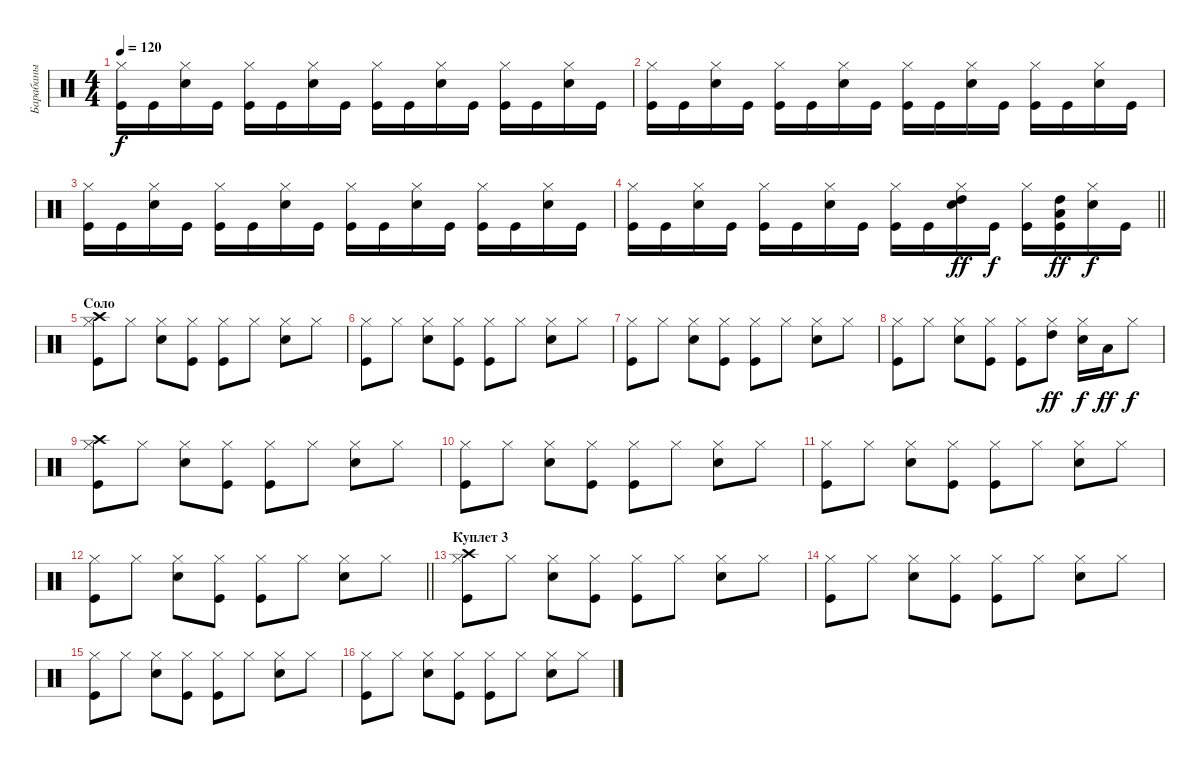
\track ("Барабаны" "Барабаны") {instrument percussion}
\staff {score}
\articulation defaults
\ts (4 4)
\tempo 120
\clef neutral
\ks c
("Kick (hit)" "Hi-Hat (closed)").16{dy f} "Kick (hit)".16 ("Snare (hit) 2" "Hi-Hat (closed)").16 "Kick (hit)".16 ("Kick (hit)" "Hi-Hat (closed)").16 "Kick (hit)".16 ("Snare (hit) 2" "Hi-Hat (closed)").16 "Kick (hit)".16 ("Kick (hit)" "Hi-Hat (closed)").16 "Kick (hit)".16 ("Snare (hit) 2" "Hi-Hat (closed)").16 "Kick (hit)".16 ("Kick (hit)" "Hi-Hat (closed)").16 "Kick (hit)".16 ("Snare (hit) 2" "Hi-Hat (closed)").16 "Kick (hit)".16 |
("Kick (hit)" "Hi-Hat (closed)").16 "Kick (hit)".16 ("Snare (hit) 2" "Hi-Hat (closed)").16 "Kick (hit)".16 ("Kick (hit)" "Hi-Hat (closed)").16 "Kick (hit)".16 ("Snare (hit) 2" "Hi-Hat (closed)").16 "Kick (hit)".16 ("Kick (hit)" "Hi-Hat (closed)").16 "Kick (hit)".16 ("Snare (hit) 2" "Hi-Hat (closed)").16 "Kick (hit)".16 ("Kick (hit)" "Hi-Hat (closed)").16 "Kick (hit)".16 ("Snare (hit) 2" "Hi-Hat (closed)").16 "Kick (hit)".16 |
("Kick (hit)" "Hi-Hat (closed)").16 "Kick (hit)".16 ("Snare (hit) 2" "Hi-Hat (closed)").16 "Kick (hit)".16 ("Kick (hit)" "Hi-Hat (closed)").16 "Kick (hit)".16 ("Snare (hit) 2" "Hi-Hat (closed)").16 "Kick (hit)".16 ("Kick (hit)" "Hi-Hat (closed)").16 "Kick (hit)".16 ("Snare (hit) 2" "Hi-Hat (closed)").16 "Kick (hit)".16 ("Kick (hit)" "Hi-Hat (closed)").16 "Kick (hit)".16 ("Snare (hit) 2" "Hi-Hat (closed)").16 "Kick (hit)".16 |
\barLineRight lightlight
("Kick (hit)" "Hi-Hat (closed)").16 "Kick (hit)".16 ("Snare (hit) 2" "Hi-Hat (closed)").16 "Kick (hit)".16 ("Kick (hit)" "Hi-Hat (closed)").16 "Kick (hit)".16 ("Snare (hit) 2" "Hi-Hat (closed)").16 "Kick (hit)".16 ("Kick (hit)" "Hi-Hat (closed)").16 "Kick (hit)".16 ("Snare (hit) 2" "Hi-Hat (closed)" "High Tom (hit)").16{dy ff} "Kick (hit)".16{dy f} ("Kick (hit)" "Hi-Hat (closed)").16 ("Kick (hit)" "High Tom (hit)" "Low Floor Tom (hit)").16{dy ff} ("Snare (hit) 2" "Hi-Hat (closed)").16{dy f} "Kick (hit)".16 |
\section ("" "Соло")
("Kick (hit)" "Hi-Hat (closed)" "Crash high (hit)").8 "Hi-Hat (closed)".8 ("Snare (hit) 2" "Hi-Hat (closed)").8 ("Kick (hit)" "Hi-Hat (closed)").8 ("Kick (hit)" "Hi-Hat (closed)").8 "Hi-Hat (closed)".8 ("Snare (hit) 2" "Hi-Hat (closed)").8 "Hi-Hat (closed)".8 |
("Kick (hit)" "Hi-Hat (closed)").8 "Hi-Hat (closed)".8 ("Snare (hit) 2" "Hi-Hat (closed)").8 ("Kick (hit)" "Hi-Hat (closed)").8 ("Kick (hit)" "Hi-Hat (closed)").8 "Hi-Hat (closed)".8 ("Snare (hit) 2" "Hi-Hat (closed)").8 "Hi-Hat (closed)".8 |
("Kick (hit)" "Hi-Hat (closed)").8 "Hi-Hat (closed)".8 ("Snare (hit) 2" "Hi-Hat (closed)").8 ("Kick (hit)" "Hi-Hat (closed)").8 ("Kick (hit)" "Hi-Hat (closed)").8 "Hi-Hat (closed)".8 ("Snare (hit) 2" "Hi-Hat (closed)").8 "Hi-Hat (closed)".8 |
("Kick (hit)" "Hi-Hat (closed)").8 "Hi-Hat (closed)".8 ("Snare (hit) 2" "Hi-Hat (closed)").8 ("Kick (hit)" "Hi-Hat (closed)").8 ("Kick (hit)" "Hi-Hat (closed)").8 ("Hi-Hat (closed)" "High Tom (hit)").8{dy ff} ("Snare (hit) 2" "Hi-Hat (closed)").16{dy f} "Low Floor Tom (hit)".16{dy ff} "Hi-Hat (closed)".8{dy f} |
("Kick (hit)" "Hi-Hat (closed)" "Crash high (hit)").8 "Hi-Hat (closed)".8 ("Snare (hit) 2" "Hi-Hat (closed)").8 ("Kick (hit)" "Hi-Hat (closed)").8 ("Kick (hit)" "Hi-Hat (closed)").8 "Hi-Hat (closed)".8 ("Snare (hit) 2" "Hi-Hat (closed)").8 "Hi-Hat (closed)".8 |
("Kick (hit)" "Hi-Hat (closed)").8 "Hi-Hat (closed)".8 ("Snare (hit) 2" "Hi-Hat (closed)").8 ("Kick (hit)" "Hi-Hat (closed)").8 ("Kick (hit)" "Hi-Hat (closed)").8 "Hi-Hat (closed)".8 ("Snare (hit) 2" "Hi-Hat (closed)").8 "Hi-Hat (closed)".8 |
("Kick (hit)" "Hi-Hat (closed)").8 "Hi-Hat (closed)".8 ("Snare (hit) 2" "Hi-Hat (closed)").8 ("Kick (hit)" "Hi-Hat (closed)").8 ("Kick (hit)" "Hi-Hat (closed)").8 "Hi-Hat (closed)".8 ("Snare (hit) 2" "Hi-Hat (closed)").8 "Hi-Hat (closed)".8 |
\barLineRight lightlight
("Kick (hit)" "Hi-Hat (closed)").8 "Hi-Hat (closed)".8 ("Snare (hit) 2" "Hi-Hat (closed)").8 ("Kick (hit)" "Hi-Hat (closed)").8 ("Kick (hit)" "Hi-Hat (closed)").8 "Hi-Hat (closed)".8 ("Snare (hit) 2" "Hi-Hat (closed)").8 "Hi-Hat (closed)".8 |
\section ("" "Куплет 3")
("Kick (hit)" "Hi-Hat (closed)" "Crash high (hit)").8 "Hi-Hat (closed)".8 ("Snare (hit) 2" "Hi-Hat (closed)").8 ("Kick (hit)" "Hi-Hat (closed)").8 ("Kick (hit)" "Hi-Hat (closed)").8 "Hi-Hat (closed)".8 ("Snare (hit) 2" "Hi-Hat (closed)").8 "Hi-Hat (closed)".8 |
("Kick (hit)" "Hi-Hat (closed)").8 "Hi-Hat (closed)".8 ("Snare (hit) 2" "Hi-Hat (closed)").8 ("Kick (hit)" "Hi-Hat (closed)").8 ("Kick (hit)" "Hi-Hat (closed)").8 "Hi-Hat (closed)".8 ("Snare (hit) 2" "Hi-Hat (closed)").8 "Hi-Hat (closed)".8 |
("Kick (hit)" "Hi-Hat (closed)").8 "Hi-Hat (closed)".8 ("Snare (hit) 2" "Hi-Hat (closed)").8 ("Kick (hit)" "Hi-Hat (closed)").8 ("Kick (hit)" "Hi-Hat (closed)").8 "Hi-Hat (closed)".8 ("Snare (hit) 2" "Hi-Hat (closed)").8 "Hi-Hat (closed)".8 |
("Kick (hit)" "Hi-Hat (closed)").8 "Hi-Hat (closed)".8 ("Snare (hit) 2" "Hi-Hat (closed)").8 ("Kick (hit)" "Hi-Hat (closed)").8 ("Kick (hit)" "Hi-Hat (closed)").8 "Hi-Hat (closed)".8 ("Snare (hit) 2" "Hi-Hat (closed)").8 "Hi-Hat (closed)".8
